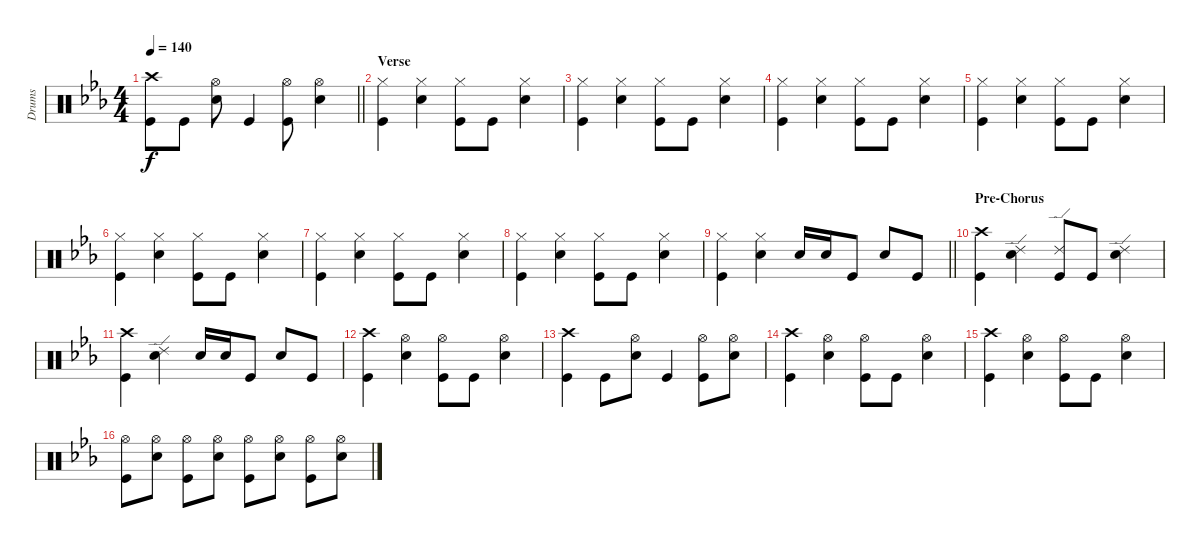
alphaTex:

\track ("Drums" "Drums") {instrument percussion}
\staff {score}
\articulation defaults
\ts (4 4)
\tempo 140
\clef neutral
\barLineRight lightlight
\ks eb
("Crash high (hit)" "Kick (hit)").8{dy f} "Kick (hit)".8 ("Hi-Hat (open)" "Snare (hit) 2").8 "Kick (hit)".4 ("Hi-Hat (open)" "Kick (hit)").8 ("Hi-Hat (open)" "Snare (hit) 2").4 |
\section ("" "Verse")
("Hi-Hat (closed)" "Kick (hit)").4 ("Hi-Hat (closed)" "Snare (hit) 2").4 ("Hi-Hat (closed)" "Kick (hit)").8 "Kick (hit)".8 ("Hi-Hat (closed)" "Snare (hit) 2").4 |
("Hi-Hat (closed)" "Kick (hit)").4 ("Hi-Hat (closed)" "Snare (hit) 2").4 ("Hi-Hat (closed)" "Kick (hit)").8 "Kick (hit)".8 ("Hi-Hat (closed)" "Snare (hit) 2").4 |
("Hi-Hat (closed)" "Kick (hit)").4 ("Hi-Hat (closed)" "Snare (hit) 2").4 ("Hi-Hat (closed)" "Kick (hit)").8 "Kick (hit)".8 ("Hi-Hat (closed)" "Snare (hit) 2").4 |
("Hi-Hat (closed)" "Kick (hit)").4 ("Hi-Hat (closed)" "Snare (hit) 2").4 ("Hi-Hat (closed)" "Kick (hit)").8 "Kick (hit)".8 ("Hi-Hat (closed)" "Snare (hit) 2").4 |
("Hi-Hat (closed)" "Kick (hit)").4 ("Hi-Hat (closed)" "Snare (hit) 2").4 ("Hi-Hat (closed)" "Kick (hit)").8 "Kick (hit)".8 ("Hi-Hat (closed)" "Snare (hit) 2").4 |
("Hi-Hat (closed)" "Kick (hit)").4 ("Hi-Hat (closed)" "Snare (hit) 2").4 ("Hi-Hat (closed)" "Kick (hit)").8 "Kick (hit)".8 ("Hi-Hat (closed)" "Snare (hit) 2").4 |
("Hi-Hat (closed)" "Kick (hit)").4 ("Hi-Hat (closed)" "Snare (hit) 2").4 ("Hi-Hat (closed)" "Kick (hit)").8 "Kick (hit)".8 ("Hi-Hat (closed)" "Snare (hit) 2").4 |
\barLineRight lightlight
("Hi-Hat (closed)" "Kick (hit)").4 ("Hi-Hat (closed)" "Snare (hit) 2").4 "Snare (hit) 2".16 "Snare (hit) 2".16 "Kick (hit)".8 "Snare (hit) 2".8 "Kick (hit)".8 |
\section ("" "Pre-Chorus")
("Crash high (hit)" "Kick (hit)").4 ("Ride (edge) 2" "Snare (hit) 2").4 ("Ride (edge) 2" "Kick (hit)").8 "Kick (hit)".8 ("Ride (edge) 2" "Snare (hit) 2").4 |
("Crash high (hit)" "Kick (hit)").4 ("Ride (edge) 2" "Snare (hit) 2").4 "Snare (hit) 2".16 "Snare (hit) 2".16 "Kick (hit)".8 "Snare (hit) 2".8 "Kick (hit)".8 |
("Crash high (hit)" "Kick (hit)").4 ("Hi-Hat (open)" "Snare (hit) 2").4 ("Hi-Hat (open)" "Kick (hit)").8 "Kick (hit)".8 ("Hi-Hat (open)" "Snare (hit) 2").4 |
("Crash high (hit)" "Kick (hit)").4 "Kick (hit)".8 ("Hi-Hat (open)" "Snare (hit) 2").8 "Kick (hit)".4 ("Hi-Hat (open)" "Kick (hit)").8 ("Hi-Hat (open)" "Snare (hit) 2").8 |
("Crash high (hit)" "Kick (hit)").4 ("Hi-Hat (open)" "Snare (hit) 2").4 ("Hi-Hat (open)" "Kick (hit)").8 "Kick (hit)".8 ("Hi-Hat (open)" "Snare (hit) 2").4 |
("Crash high (hit)" "Kick (hit)").4 ("Hi-Hat (open)" "Snare (hit) 2").4 ("Hi-Hat (open)" "Kick (hit)").8 "Kick (hit)".8 ("Hi-Hat (open)" "Snare (hit) 2").4 |
("Hi-Hat (open)" "Kick (hit)").8 ("Hi-Hat (open)" "Snare (hit) 2").8 ("Hi-Hat (open)" "Kick (hit)").8 ("Hi-Hat (open)" "Snare (hit) 2").8 ("Hi-Hat (open)" "Kick (hit)").8 ("Hi-Hat (open)" "Snare (hit) 2").8 ("Hi-Hat (open)" "Kick (hit)").8 ("Hi-Hat (open)" "Snare (hit) 2").8
